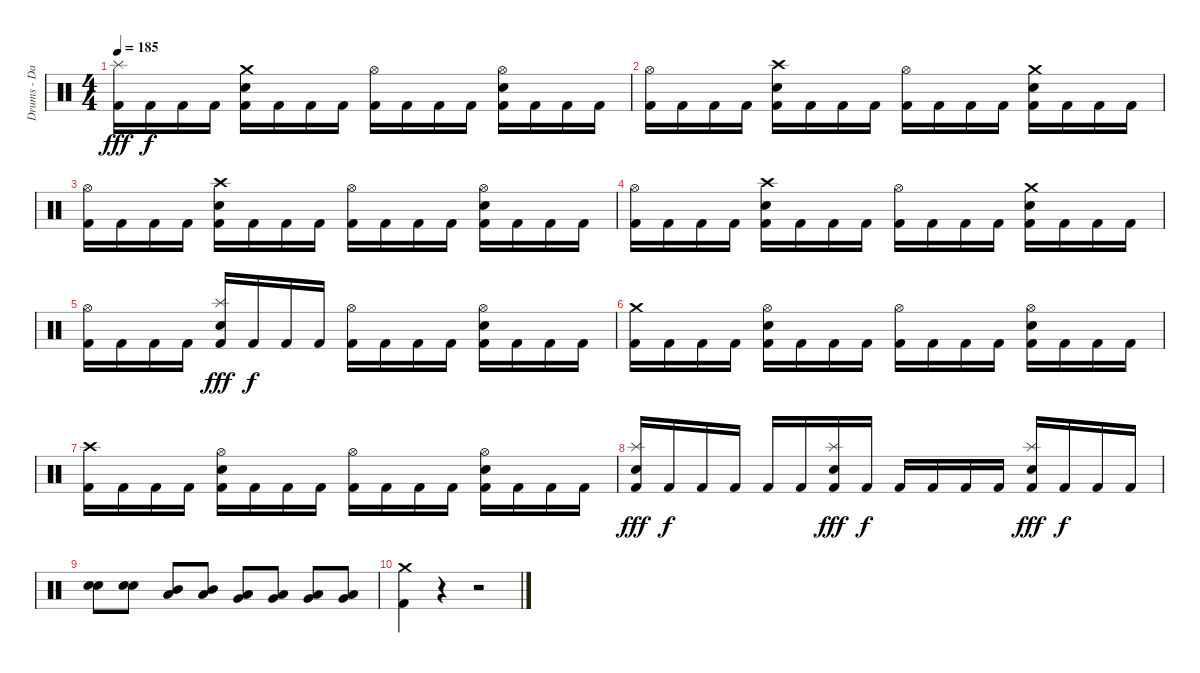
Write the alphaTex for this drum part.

\track ("Drums - Daniel Zimmermann" "Drums - Da") {instrument percussion}
\staff {score}
\articulation defaults
\ts (4 4)
\section ("" "")
\tempo 185
\clef neutral
\ks c
("Kick (hit) 2" "Splash (hit)").16{dy fff} "Kick (hit) 2".16{dy f} "Kick (hit) 2".16 "Kick (hit) 2".16 ("Kick (hit) 2" "Electric Snare (hit)" "Crash medium (hit)").16 "Kick (hit) 2".16 "Kick (hit) 2".16 "Kick (hit) 2".16 ("Kick (hit) 2" "Hi-Hat (open)").16 "Kick (hit) 2".16 "Kick (hit) 2".16 "Kick (hit) 2".16 ("Kick (hit) 2" "Electric Snare (hit)" "Hi-Hat (open)").16 "Kick (hit) 2".16 "Kick (hit) 2".16 "Kick (hit) 2".16 |
("Kick (hit) 2" "Hi-Hat (open)").16 "Kick (hit) 2".16 "Kick (hit) 2".16 "Kick (hit) 2".16 ("Kick (hit) 2" "Electric Snare (hit)" "Crash high (hit)").16 "Kick (hit) 2".16 "Kick (hit) 2".16 "Kick (hit) 2".16 ("Kick (hit) 2" "Hi-Hat (open)").16 "Kick (hit) 2".16 "Kick (hit) 2".16 "Kick (hit) 2".16 ("Kick (hit) 2" "Electric Snare (hit)" "Crash medium (hit)").16 "Kick (hit) 2".16 "Kick (hit) 2".16 "Kick (hit) 2".16 |
("Kick (hit) 2" "Hi-Hat (open)").16 "Kick (hit) 2".16 "Kick (hit) 2".16 "Kick (hit) 2".16 ("Kick (hit) 2" "Electric Snare (hit)" "Crash high (hit)").16 "Kick (hit) 2".16 "Kick (hit) 2".16 "Kick (hit) 2".16 ("Kick (hit) 2" "Hi-Hat (open)").16 "Kick (hit) 2".16 "Kick (hit) 2".16 "Kick (hit) 2".16 ("Kick (hit) 2" "Electric Snare (hit)" "Hi-Hat (open)").16 "Kick (hit) 2".16 "Kick (hit) 2".16 "Kick (hit) 2".16 |
("Kick (hit) 2" "Hi-Hat (open)").16 "Kick (hit) 2".16 "Kick (hit) 2".16 "Kick (hit) 2".16 ("Kick (hit) 2" "Electric Snare (hit)" "Crash high (hit)").16 "Kick (hit) 2".16 "Kick (hit) 2".16 "Kick (hit) 2".16 ("Kick (hit) 2" "Hi-Hat (open)").16 "Kick (hit) 2".16 "Kick (hit) 2".16 "Kick (hit) 2".16 ("Kick (hit) 2" "Electric Snare (hit)" "Crash medium (hit)").16 "Kick (hit) 2".16 "Kick (hit) 2".16 "Kick (hit) 2".16 |
("Kick (hit) 2" "Hi-Hat (open)").16 "Kick (hit) 2".16 "Kick (hit) 2".16 "Kick (hit) 2".16 ("Kick (hit) 2" "Electric Snare (hit)" "Splash (hit)").16{dy fff} "Kick (hit) 2".16{dy f} "Kick (hit) 2".16 "Kick (hit) 2".16 ("Kick (hit) 2" "Hi-Hat (open)").16 "Kick (hit) 2".16 "Kick (hit) 2".16 "Kick (hit) 2".16 ("Kick (hit) 2" "Electric Snare (hit)" "Hi-Hat (open)").16 "Kick (hit) 2".16 "Kick (hit) 2".16 "Kick (hit) 2".16 |
("Kick (hit) 2" "Crash medium (hit)").16 "Kick (hit) 2".16 "Kick (hit) 2".16 "Kick (hit) 2".16 ("Kick (hit) 2" "Electric Snare (hit)" "Hi-Hat (open)").16 "Kick (hit) 2".16 "Kick (hit) 2".16 "Kick (hit) 2".16 ("Kick (hit) 2" "Hi-Hat (open)").16 "Kick (hit) 2".16 "Kick (hit) 2".16 "Kick (hit) 2".16 ("Kick (hit) 2" "Electric Snare (hit)" "Hi-Hat (open)").16 "Kick (hit) 2".16 "Kick (hit) 2".16 "Kick (hit) 2".16 |
("Kick (hit) 2" "Crash high (hit)").16 "Kick (hit) 2".16 "Kick (hit) 2".16 "Kick (hit) 2".16 ("Kick (hit) 2" "Electric Snare (hit)" "Hi-Hat (open)").16 "Kick (hit) 2".16 "Kick (hit) 2".16 "Kick (hit) 2".16 ("Kick (hit) 2" "Hi-Hat (open)").16 "Kick (hit) 2".16 "Kick (hit) 2".16 "Kick (hit) 2".16 ("Kick (hit) 2" "Electric Snare (hit)" "Hi-Hat (open)").16 "Kick (hit) 2".16 "Kick (hit) 2".16 "Kick (hit) 2".16 |
("Kick (hit) 2" "Electric Snare (hit)" "Splash (hit)").16{dy fff} "Kick (hit) 2".16{dy f} "Kick (hit) 2".16 "Kick (hit) 2".16 "Kick (hit) 2".16 "Kick (hit) 2".16 ("Kick (hit) 2" "Electric Snare (hit)" "Splash (hit)").16{dy fff} "Kick (hit) 2".16{dy f} "Kick (hit) 2".16 "Kick (hit) 2".16 "Kick (hit) 2".16 "Kick (hit) 2".16 ("Kick (hit) 2" "Electric Snare (hit)" "Splash (hit)").16{dy fff} "Kick (hit) 2".16{dy f} "Kick (hit) 2".16 "Kick (hit) 2".16 |
("Electric Snare (hit)" "Electric Snare (hit)").8 ("Electric Snare (hit)" "Electric Snare (hit)").8 ("Mid Tom (hit)" "Low Tom (hit)").8 ("Mid Tom (hit)" "Low Tom (hit)").8 ("Low Tom (hit)" "Very Low Tom (hit)").8 ("Low Tom (hit)" "Very Low Tom (hit)").8 ("Very Low Tom (hit)" "Low Floor Tom (hit)").8 ("Very Low Tom (hit)" "Low Floor Tom (hit)").8 |
("Kick (hit) 2" "Crash medium (hit)").4 r.4 r.2
